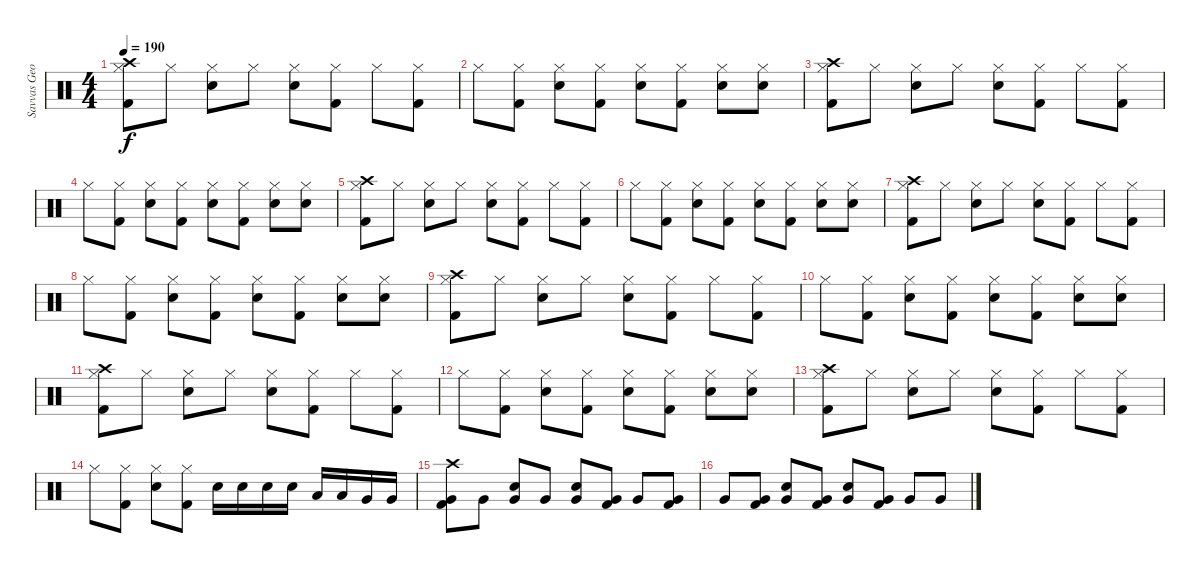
\track ("Savvas Georgiadis" "Savvas Geo") {instrument percussion}
\staff {score}
\articulation defaults
\ts (4 4)
\tempo 190
\clef neutral
\ks c
("Crash high (hit)" "Hi-Hat (closed)" "Kick (hit) 2").8{dy f} "Hi-Hat (closed)".8 ("Hi-Hat (closed)" "Electric Snare (hit)").8 "Hi-Hat (closed)".8 ("Hi-Hat (closed)" "Electric Snare (hit)").8 ("Hi-Hat (closed)" "Kick (hit) 2").8 "Hi-Hat (closed)".8 ("Hi-Hat (closed)" "Kick (hit) 2").8 |
"Hi-Hat (closed)".8 ("Hi-Hat (closed)" "Kick (hit) 2").8 ("Hi-Hat (closed)" "Electric Snare (hit)").8 ("Hi-Hat (closed)" "Kick (hit) 2").8 ("Hi-Hat (closed)" "Electric Snare (hit)").8 ("Hi-Hat (closed)" "Kick (hit) 2").8 ("Hi-Hat (closed)" "Electric Snare (hit)").8 ("Hi-Hat (closed)" "Electric Snare (hit)").8 |
("Crash high (hit)" "Hi-Hat (closed)" "Kick (hit) 2").8 "Hi-Hat (closed)".8 ("Hi-Hat (closed)" "Electric Snare (hit)").8 "Hi-Hat (closed)".8 ("Hi-Hat (closed)" "Electric Snare (hit)").8 ("Hi-Hat (closed)" "Kick (hit) 2").8 "Hi-Hat (closed)".8 ("Hi-Hat (closed)" "Kick (hit) 2").8 |
"Hi-Hat (closed)".8 ("Hi-Hat (closed)" "Kick (hit) 2").8 ("Hi-Hat (closed)" "Electric Snare (hit)").8 ("Hi-Hat (closed)" "Kick (hit) 2").8 ("Hi-Hat (closed)" "Electric Snare (hit)").8 ("Hi-Hat (closed)" "Kick (hit) 2").8 ("Hi-Hat (closed)" "Electric Snare (hit)").8 ("Hi-Hat (closed)" "Electric Snare (hit)").8 |
("Crash high (hit)" "Hi-Hat (closed)" "Kick (hit) 2").8 "Hi-Hat (closed)".8 ("Hi-Hat (closed)" "Electric Snare (hit)").8 "Hi-Hat (closed)".8 ("Hi-Hat (closed)" "Electric Snare (hit)").8 ("Hi-Hat (closed)" "Kick (hit) 2").8 "Hi-Hat (closed)".8 ("Hi-Hat (closed)" "Kick (hit) 2").8 |
"Hi-Hat (closed)".8 ("Hi-Hat (closed)" "Kick (hit) 2").8 ("Hi-Hat (closed)" "Electric Snare (hit)").8 ("Hi-Hat (closed)" "Kick (hit) 2").8 ("Hi-Hat (closed)" "Electric Snare (hit)").8 ("Hi-Hat (closed)" "Kick (hit) 2").8 ("Hi-Hat (closed)" "Electric Snare (hit)").8 ("Hi-Hat (closed)" "Electric Snare (hit)").8 |
("Crash high (hit)" "Hi-Hat (closed)" "Kick (hit) 2").8 "Hi-Hat (closed)".8 ("Hi-Hat (closed)" "Electric Snare (hit)").8 "Hi-Hat (closed)".8 ("Hi-Hat (closed)" "Electric Snare (hit)").8 ("Hi-Hat (closed)" "Kick (hit) 2").8 "Hi-Hat (closed)".8 ("Hi-Hat (closed)" "Kick (hit) 2").8 |
"Hi-Hat (closed)".8 ("Hi-Hat (closed)" "Kick (hit) 2").8 ("Hi-Hat (closed)" "Electric Snare (hit)").8 ("Hi-Hat (closed)" "Kick (hit) 2").8 ("Hi-Hat (closed)" "Electric Snare (hit)").8 ("Hi-Hat (closed)" "Kick (hit) 2").8 ("Hi-Hat (closed)" "Electric Snare (hit)").8 ("Hi-Hat (closed)" "Electric Snare (hit)").8 |
("Crash high (hit)" "Hi-Hat (closed)" "Kick (hit) 2").8 "Hi-Hat (closed)".8 ("Hi-Hat (closed)" "Electric Snare (hit)").8 "Hi-Hat (closed)".8 ("Hi-Hat (closed)" "Electric Snare (hit)").8 ("Hi-Hat (closed)" "Kick (hit) 2").8 "Hi-Hat (closed)".8 ("Hi-Hat (closed)" "Kick (hit) 2").8 |
"Hi-Hat (closed)".8 ("Hi-Hat (closed)" "Kick (hit) 2").8 ("Hi-Hat (closed)" "Electric Snare (hit)").8 ("Hi-Hat (closed)" "Kick (hit) 2").8 ("Hi-Hat (closed)" "Electric Snare (hit)").8 ("Hi-Hat (closed)" "Kick (hit) 2").8 ("Hi-Hat (closed)" "Electric Snare (hit)").8 ("Hi-Hat (closed)" "Electric Snare (hit)").8 |
("Crash high (hit)" "Hi-Hat (closed)" "Kick (hit) 2").8 "Hi-Hat (closed)".8 ("Hi-Hat (closed)" "Electric Snare (hit)").8 "Hi-Hat (closed)".8 ("Hi-Hat (closed)" "Electric Snare (hit)").8 ("Hi-Hat (closed)" "Kick (hit) 2").8 "Hi-Hat (closed)".8 ("Hi-Hat (closed)" "Kick (hit) 2").8 |
"Hi-Hat (closed)".8 ("Hi-Hat (closed)" "Kick (hit) 2").8 ("Hi-Hat (closed)" "Electric Snare (hit)").8 ("Hi-Hat (closed)" "Kick (hit) 2").8 ("Hi-Hat (closed)" "Electric Snare (hit)").8 ("Hi-Hat (closed)" "Kick (hit) 2").8 ("Hi-Hat (closed)" "Electric Snare (hit)").8 ("Hi-Hat (closed)" "Electric Snare (hit)").8 |
("Crash high (hit)" "Hi-Hat (closed)" "Kick (hit) 2").8 "Hi-Hat (closed)".8 ("Hi-Hat (closed)" "Electric Snare (hit)").8 "Hi-Hat (closed)".8 ("Hi-Hat (closed)" "Electric Snare (hit)").8 ("Hi-Hat (closed)" "Kick (hit) 2").8 "Hi-Hat (closed)".8 ("Hi-Hat (closed)" "Kick (hit) 2").8 |
"Hi-Hat (closed)".8 ("Hi-Hat (closed)" "Kick (hit) 2").8 ("Hi-Hat (closed)" "Electric Snare (hit)").8 ("Hi-Hat (closed)" "Kick (hit) 2").8 "Electric Snare (hit)".16 "Electric Snare (hit)".16 "Electric Snare (hit)".16 "Electric Snare (hit)".16 "Low Tom (hit)".16 "Low Tom (hit)".16 "Very Low Tom (hit)".16 "Very Low Tom (hit)".16 |
("Crash high (hit)" "Kick (hit) 2" "Very Low Tom (hit)").8 "Very Low Tom (hit)".8 ("Electric Snare (hit)" "Very Low Tom (hit)").8 "Very Low Tom (hit)".8 ("Electric Snare (hit)" "Very Low Tom (hit)").8 ("Kick (hit) 2" "Very Low Tom (hit)").8 "Very Low Tom (hit)".8 ("Kick (hit) 2" "Very Low Tom (hit)").8 |
"Very Low Tom (hit)".8 ("Kick (hit) 2" "Very Low Tom (hit)").8 ("Electric Snare (hit)" "Very Low Tom (hit)").8 ("Kick (hit) 2" "Very Low Tom (hit)").8 ("Electric Snare (hit)" "Very Low Tom (hit)").8 ("Kick (hit) 2" "Very Low Tom (hit)").8 "Very Low Tom (hit)".8 "Very Low Tom (hit)".8
